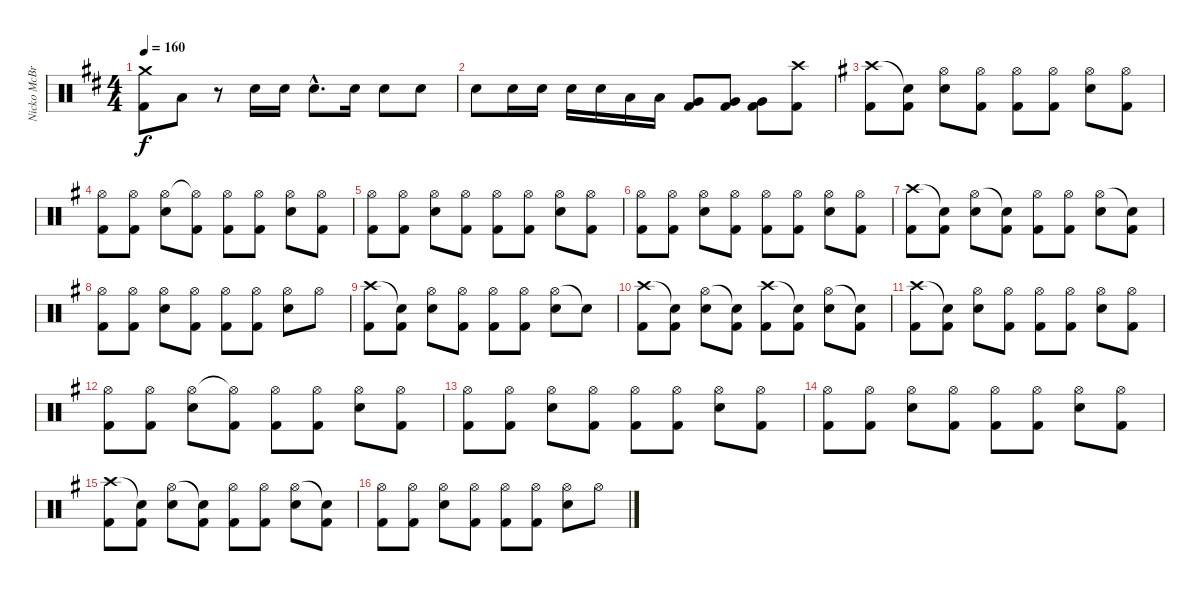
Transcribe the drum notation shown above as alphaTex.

\track ("Nicko McBrain" "Nicko McBr") {instrument percussion}
\staff {score}
\articulation defaults
\ts (4 4)
\tempo 160
\clef neutral
\ks d
("Crash medium (hit)" "Kick (hit) 2").8{dy f} "Low Tom (hit)".8 r.8 "Electric Snare (hit)".16 "Electric Snare (hit)".16 "Electric Snare (hit)"{hac}.8{d} "Electric Snare (hit)".16 "Electric Snare (hit)".8 "Electric Snare (hit)".8 |
"Electric Snare (hit)".8 "Electric Snare (hit)".16 "Electric Snare (hit)".16 "Electric Snare (hit)".16 "Electric Snare (hit)".16 "Low Tom (hit)".16 "Low Tom (hit)".16 ("Very Low Tom (hit)" "Kick (hit) 2").8 ("Very Low Tom (hit)" "Kick (hit) 2").8 ("Very Low Tom (hit)" "Kick (hit) 2").8 ("Crash high (hit)" "Kick (hit) 2").8 |
\ks g
("Crash high (hit)" "Kick (hit) 2").8 ("Snare (hit)"{t} "Kick (hit) 2").8 ("Hi-Hat (open)" "Electric Snare (hit)").8 ("Hi-Hat (open)" "Kick (hit) 2").8 ("Hi-Hat (open)" "Kick (hit) 2").8 ("Hi-Hat (open)" "Kick (hit) 2").8 ("Hi-Hat (open)" "Electric Snare (hit)").8 ("Hi-Hat (open)" "Kick (hit) 2").8 |
("Hi-Hat (open)" "Kick (hit) 2").8 ("Hi-Hat (open)" "Kick (hit) 2").8 ("Hi-Hat (open)" "Electric Snare (hit)").8 ("Hi-Hat (open)"{t} "Kick (hit) 2").8 ("Hi-Hat (open)" "Kick (hit) 2").8 ("Hi-Hat (open)" "Kick (hit) 2").8 ("Hi-Hat (open)" "Electric Snare (hit)").8 ("Hi-Hat (open)" "Kick (hit) 2").8 |
("Hi-Hat (open)" "Kick (hit) 2").8 ("Hi-Hat (open)" "Kick (hit) 2").8 ("Hi-Hat (open)" "Electric Snare (hit)").8 ("Hi-Hat (open)" "Kick (hit) 2").8 ("Hi-Hat (open)" "Kick (hit) 2").8 ("Hi-Hat (open)" "Kick (hit) 2").8 ("Hi-Hat (open)" "Electric Snare (hit)").8 ("Hi-Hat (open)" "Kick (hit) 2").8 |
("Hi-Hat (open)" "Kick (hit) 2").8 ("Hi-Hat (open)" "Kick (hit) 2").8 ("Hi-Hat (open)" "Electric Snare (hit)").8 ("Hi-Hat (open)" "Kick (hit) 2").8 ("Hi-Hat (open)" "Kick (hit) 2").8 ("Hi-Hat (open)" "Kick (hit) 2").8 ("Hi-Hat (open)" "Electric Snare (hit)").8 ("Hi-Hat (open)" "Kick (hit) 2").8 |
("Crash high (hit)" "Kick (hit) 2").8 ("Snare (hit)"{t} "Kick (hit) 2").8 ("Hi-Hat (open)" "Electric Snare (hit)").8 ("Snare (hit)"{t} "Kick (hit) 2").8 ("Hi-Hat (open)" "Kick (hit) 2").8 ("Hi-Hat (open)" "Kick (hit) 2").8 ("Hi-Hat (open)" "Electric Snare (hit)").8 ("Snare (hit)"{t} "Kick (hit) 2").8 |
("Hi-Hat (open)" "Kick (hit) 2").8 ("Hi-Hat (open)" "Kick (hit) 2").8 ("Hi-Hat (open)" "Electric Snare (hit)").8 ("Hi-Hat (open)" "Kick (hit) 2").8 ("Hi-Hat (open)" "Kick (hit) 2").8 ("Hi-Hat (open)" "Kick (hit) 2").8 ("Hi-Hat (open)" "Electric Snare (hit)").8 "Hi-Hat (open)".8 |
("Crash high (hit)" "Kick (hit) 2").8 ("Snare (hit)"{t} "Kick (hit) 2").8 ("Hi-Hat (open)" "Electric Snare (hit)").8 ("Hi-Hat (open)" "Kick (hit) 2").8 ("Hi-Hat (open)" "Kick (hit) 2").8 ("Hi-Hat (open)" "Kick (hit) 2").8 ("Hi-Hat (open)" "Electric Snare (hit)").8 "Snare (hit)"{t}.8 |
("Crash high (hit)" "Kick (hit) 2").8 ("Snare (hit)"{t} "Kick (hit) 2").8 ("Hi-Hat (open)" "Electric Snare (hit)").8 ("Snare (hit)"{t} "Kick (hit) 2").8 ("Crash high (hit)" "Kick (hit) 2").8 ("Snare (hit)"{t} "Kick (hit) 2").8 ("Hi-Hat (open)" "Electric Snare (hit)").8 ("Snare (hit)"{t} "Kick (hit) 2").8 |
("Crash high (hit)" "Kick (hit) 2").8 ("Snare (hit)"{t} "Kick (hit) 2").8 ("Hi-Hat (open)" "Electric Snare (hit)").8 ("Hi-Hat (open)" "Kick (hit) 2").8 ("Hi-Hat (open)" "Kick (hit) 2").8 ("Hi-Hat (open)" "Kick (hit) 2").8 ("Hi-Hat (open)" "Electric Snare (hit)").8 ("Hi-Hat (open)" "Kick (hit) 2").8 |
("Hi-Hat (open)" "Kick (hit) 2").8 ("Hi-Hat (open)" "Kick (hit) 2").8 ("Hi-Hat (open)" "Electric Snare (hit)").8 ("Hi-Hat (open)"{t} "Kick (hit) 2").8 ("Hi-Hat (open)" "Kick (hit) 2").8 ("Hi-Hat (open)" "Kick (hit) 2").8 ("Hi-Hat (open)" "Electric Snare (hit)").8 ("Hi-Hat (open)" "Kick (hit) 2").8 |
("Hi-Hat (open)" "Kick (hit) 2").8 ("Hi-Hat (open)" "Kick (hit) 2").8 ("Hi-Hat (open)" "Electric Snare (hit)").8 ("Hi-Hat (open)" "Kick (hit) 2").8 ("Hi-Hat (open)" "Kick (hit) 2").8 ("Hi-Hat (open)" "Kick (hit) 2").8 ("Hi-Hat (open)" "Electric Snare (hit)").8 ("Hi-Hat (open)" "Kick (hit) 2").8 |
("Hi-Hat (open)" "Kick (hit) 2").8 ("Hi-Hat (open)" "Kick (hit) 2").8 ("Hi-Hat (open)" "Electric Snare (hit)").8 ("Hi-Hat (open)" "Kick (hit) 2").8 ("Hi-Hat (open)" "Kick (hit) 2").8 ("Hi-Hat (open)" "Kick (hit) 2").8 ("Hi-Hat (open)" "Electric Snare (hit)").8 ("Hi-Hat (open)" "Kick (hit) 2").8 |
("Crash high (hit)" "Kick (hit) 2").8 ("Snare (hit)"{t} "Kick (hit) 2").8 ("Hi-Hat (open)" "Electric Snare (hit)").8 ("Snare (hit)"{t} "Kick (hit) 2").8 ("Hi-Hat (open)" "Kick (hit) 2").8 ("Hi-Hat (open)" "Kick (hit) 2").8 ("Hi-Hat (open)" "Electric Snare (hit)").8 ("Snare (hit)"{t} "Kick (hit) 2").8 |
("Hi-Hat (open)" "Kick (hit) 2").8 ("Hi-Hat (open)" "Kick (hit) 2").8 ("Hi-Hat (open)" "Electric Snare (hit)").8 ("Hi-Hat (open)" "Kick (hit) 2").8 ("Hi-Hat (open)" "Kick (hit) 2").8 ("Hi-Hat (open)" "Kick (hit) 2").8 ("Hi-Hat (open)" "Electric Snare (hit)").8 "Hi-Hat (open)".8
